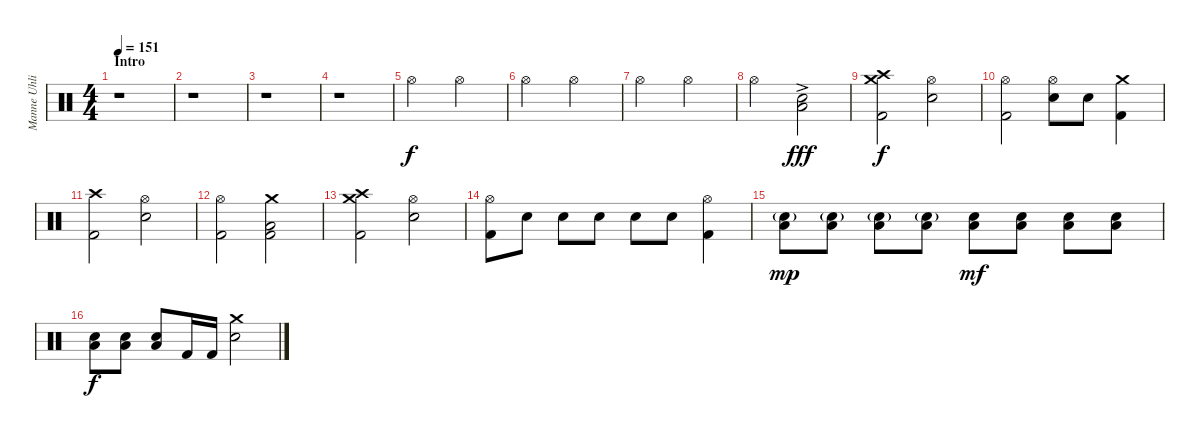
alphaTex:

\track ("Manne Uhlig" "Manne Uhli") {instrument percussion}
\staff {score}
\articulation defaults
\ts (4 4)
\section ("" "Intro")
\tempo 151
\clef neutral
\ks c
r.1{dy f} |
r.1 |
r.1 |
r.1 |
"Hi-Hat (open)".2 "Hi-Hat (open)".2 |
"Hi-Hat (open)".2 "Hi-Hat (open)".2 |
"Hi-Hat (open)".2 "Hi-Hat (open)".2 |
"Hi-Hat (open)".2 ("Snare (hit) 2" "Low Floor Tom (hit)"{ac}).2{dy fff} |
("Crash high (hit)" "Crash medium (hit)" "Kick (hit) 2").2{dy f} ("Hi-Hat (open)" "Snare (hit) 2").2 |
("Hi-Hat (open)" "Kick (hit) 2").2 ("Hi-Hat (open)" "Snare (hit) 2").8 "Snare (hit) 2".8 ("Crash medium (hit)" "Kick (hit) 2").4 |
("Crash high (hit)" "Kick (hit) 2").2 ("Hi-Hat (open)" "Snare (hit) 2").2 |
("Hi-Hat (open)" "Kick (hit) 2").2 ("Crash medium (hit)" "Low Tom (hit)" "Kick (hit) 2").2 |
("Crash high (hit)" "Crash medium (hit)" "Kick (hit) 2").2 ("Hi-Hat (open)" "Snare (hit) 2").2 |
("Hi-Hat (open)" "Kick (hit) 2").8 "Snare (hit) 2".8 "Snare (hit) 2".8 "Snare (hit) 2".8 "Snare (hit) 2".8 "Snare (hit) 2".8 ("Hi-Hat (open)" "Kick (hit) 2").4 |
("Snare (hit) 2"{g} "Low Floor Tom (hit)").8{dy mp} ("Snare (hit) 2"{g} "Low Floor Tom (hit)").8 ("Snare (hit) 2"{g} "Low Floor Tom (hit)").8 ("Snare (hit) 2"{g} "Low Floor Tom (hit)").8 ("Snare (hit) 2" "Low Floor Tom (hit)").8{dy mf} ("Snare (hit) 2" "Low Floor Tom (hit)").8 ("Snare (hit) 2" "Low Floor Tom (hit)").8 ("Snare (hit) 2" "Low Floor Tom (hit)").8 |
("Snare (hit) 2" "Low Floor Tom (hit)").8{dy f} ("Snare (hit) 2" "Low Floor Tom (hit)").8 ("Snare (hit) 2" "Low Floor Tom (hit)").8 "Kick (hit) 2".16 "Kick (hit) 2".16 ("Crash medium (hit)" "Snare (hit) 2").2
